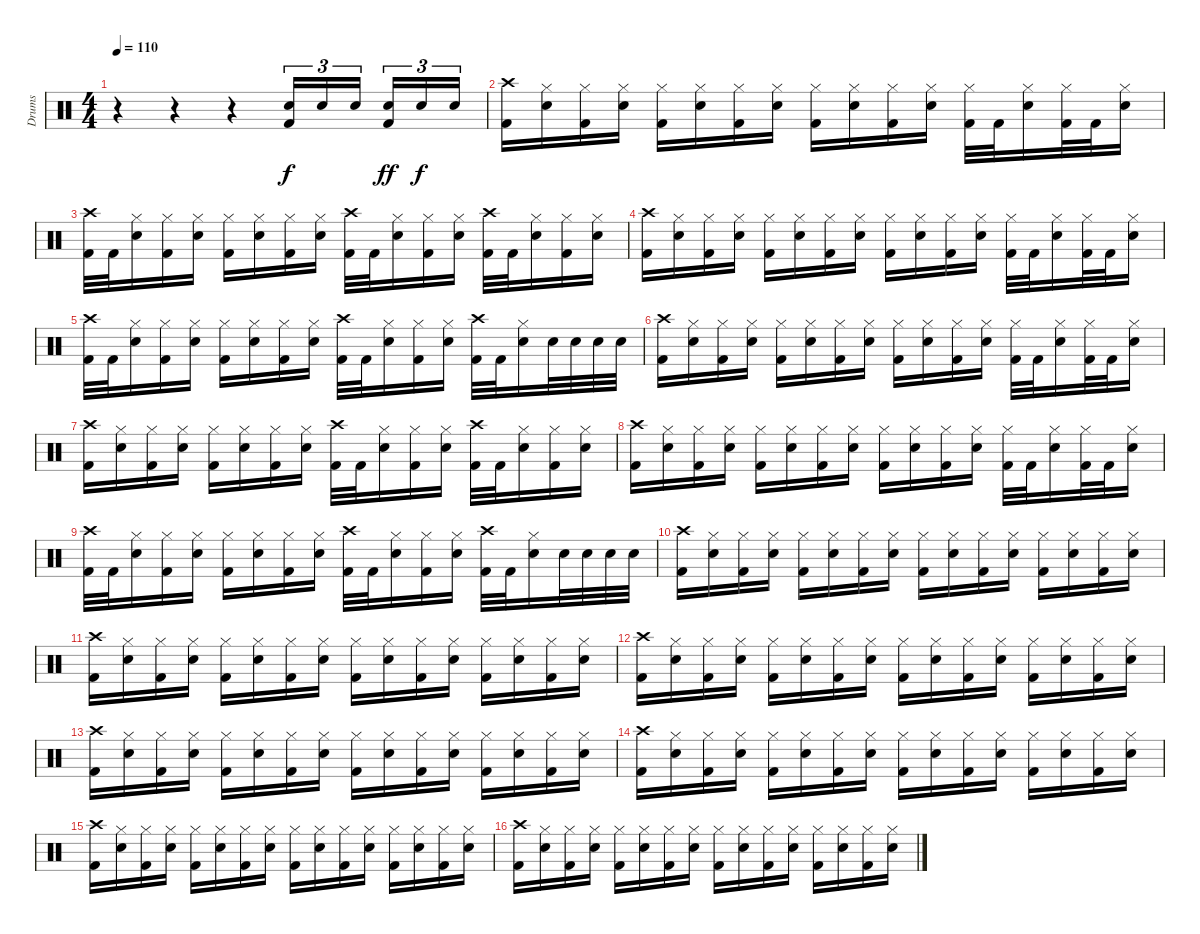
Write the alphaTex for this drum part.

\track ("Drums" "Drums") {instrument percussion}
\staff {score}
\articulation defaults
\ts (4 4)
\tempo 110
\clef neutral
\ks c
r.4{dy f} r.4 r.4 ("Kick (hit) 2" "Electric Snare (hit)").16{tu (3 2)} "Electric Snare (hit)".16{tu (3 2)} "Electric Snare (hit)".16{tu (3 2)} ("Kick (hit) 2" "Electric Snare (hit)").16{tu (3 2) dy ff} "Electric Snare (hit)".16{tu (3 2) dy f} "Electric Snare (hit)".16{tu (3 2)} |
("Crash high (hit)" "Kick (hit) 2").16 ("Hi-Hat (closed)" "Electric Snare (hit)").16 ("Hi-Hat (closed)" "Kick (hit) 2").16 ("Hi-Hat (closed)" "Electric Snare (hit)").16 ("Hi-Hat (closed)" "Kick (hit) 2").16 ("Hi-Hat (closed)" "Electric Snare (hit)").16 ("Hi-Hat (closed)" "Kick (hit) 2").16 ("Hi-Hat (closed)" "Electric Snare (hit)").16 ("Hi-Hat (closed)" "Kick (hit) 2").16 ("Hi-Hat (closed)" "Electric Snare (hit)").16 ("Hi-Hat (closed)" "Kick (hit) 2").16 ("Hi-Hat (closed)" "Electric Snare (hit)").16 ("Hi-Hat (closed)" "Kick (hit) 2").32 "Kick (hit) 2".32 ("Hi-Hat (closed)" "Electric Snare (hit)").16 ("Hi-Hat (closed)" "Kick (hit) 2").32 "Kick (hit) 2".32 ("Hi-Hat (closed)" "Electric Snare (hit)").16 |
("Crash high (hit)" "Kick (hit) 2").32 "Kick (hit) 2".32 ("Hi-Hat (closed)" "Electric Snare (hit)").16 ("Hi-Hat (closed)" "Kick (hit) 2").16 ("Hi-Hat (closed)" "Electric Snare (hit)").16 ("Hi-Hat (closed)" "Kick (hit) 2").16 ("Hi-Hat (closed)" "Electric Snare (hit)").16 ("Hi-Hat (closed)" "Kick (hit) 2").16 ("Hi-Hat (closed)" "Electric Snare (hit)").16 ("Crash high (hit)" "Kick (hit) 2").32 "Kick (hit) 2".32 ("Hi-Hat (closed)" "Electric Snare (hit)").16 ("Hi-Hat (closed)" "Kick (hit) 2").16 ("Hi-Hat (closed)" "Electric Snare (hit)").16 ("Crash high (hit)" "Kick (hit) 2").32 "Kick (hit) 2".32 ("Hi-Hat (closed)" "Electric Snare (hit)").16 ("Hi-Hat (closed)" "Kick (hit) 2").16 ("Hi-Hat (closed)" "Electric Snare (hit)").16 |
("Crash high (hit)" "Kick (hit) 2").16 ("Hi-Hat (closed)" "Electric Snare (hit)").16 ("Hi-Hat (closed)" "Kick (hit) 2").16 ("Hi-Hat (closed)" "Electric Snare (hit)").16 ("Hi-Hat (closed)" "Kick (hit) 2").16 ("Hi-Hat (closed)" "Electric Snare (hit)").16 ("Hi-Hat (closed)" "Kick (hit) 2").16 ("Hi-Hat (closed)" "Electric Snare (hit)").16 ("Hi-Hat (closed)" "Kick (hit) 2").16 ("Hi-Hat (closed)" "Electric Snare (hit)").16 ("Hi-Hat (closed)" "Kick (hit) 2").16 ("Hi-Hat (closed)" "Electric Snare (hit)").16 ("Hi-Hat (closed)" "Kick (hit) 2").32 "Kick (hit) 2".32 ("Hi-Hat (closed)" "Electric Snare (hit)").16 ("Hi-Hat (closed)" "Kick (hit) 2").32 "Kick (hit) 2".32 ("Hi-Hat (closed)" "Electric Snare (hit)").16 |
("Crash high (hit)" "Kick (hit) 2").32 "Kick (hit) 2".32 ("Hi-Hat (closed)" "Electric Snare (hit)").16 ("Hi-Hat (closed)" "Kick (hit) 2").16 ("Hi-Hat (closed)" "Electric Snare (hit)").16 ("Hi-Hat (closed)" "Kick (hit) 2").16 ("Hi-Hat (closed)" "Electric Snare (hit)").16 ("Hi-Hat (closed)" "Kick (hit) 2").16 ("Hi-Hat (closed)" "Electric Snare (hit)").16 ("Crash high (hit)" "Kick (hit) 2").32 "Kick (hit) 2".32 ("Hi-Hat (closed)" "Electric Snare (hit)").16 ("Hi-Hat (closed)" "Kick (hit) 2").16 ("Hi-Hat (closed)" "Electric Snare (hit)").16 ("Crash high (hit)" "Kick (hit) 2").32 "Kick (hit) 2".32 ("Hi-Hat (closed)" "Electric Snare (hit)").16 "Electric Snare (hit)".32 "Electric Snare (hit)".32 "Electric Snare (hit)".32 "Electric Snare (hit)".32 |
("Crash high (hit)" "Kick (hit) 2").16 ("Hi-Hat (closed)" "Electric Snare (hit)").16 ("Hi-Hat (closed)" "Kick (hit) 2").16 ("Hi-Hat (closed)" "Electric Snare (hit)").16 ("Hi-Hat (closed)" "Kick (hit) 2").16 ("Hi-Hat (closed)" "Electric Snare (hit)").16 ("Hi-Hat (closed)" "Kick (hit) 2").16 ("Hi-Hat (closed)" "Electric Snare (hit)").16 ("Hi-Hat (closed)" "Kick (hit) 2").16 ("Hi-Hat (closed)" "Electric Snare (hit)").16 ("Hi-Hat (closed)" "Kick (hit) 2").16 ("Hi-Hat (closed)" "Electric Snare (hit)").16 ("Hi-Hat (closed)" "Kick (hit) 2").32 "Kick (hit) 2".32 ("Hi-Hat (closed)" "Electric Snare (hit)").16 ("Hi-Hat (closed)" "Kick (hit) 2").32 "Kick (hit) 2".32 ("Hi-Hat (closed)" "Electric Snare (hit)").16 |
("Crash high (hit)" "Kick (hit) 2").16 ("Hi-Hat (closed)" "Electric Snare (hit)").16 ("Hi-Hat (closed)" "Kick (hit) 2").16 ("Hi-Hat (closed)" "Electric Snare (hit)").16 ("Hi-Hat (closed)" "Kick (hit) 2").16 ("Hi-Hat (closed)" "Electric Snare (hit)").16 ("Hi-Hat (closed)" "Kick (hit) 2").16 ("Hi-Hat (closed)" "Electric Snare (hit)").16 ("Crash high (hit)" "Kick (hit) 2").32 "Kick (hit) 2".32 ("Hi-Hat (closed)" "Electric Snare (hit)").16 ("Hi-Hat (closed)" "Kick (hit) 2").16 ("Hi-Hat (closed)" "Electric Snare (hit)").16 ("Crash high (hit)" "Kick (hit) 2").32 "Kick (hit) 2".32 ("Hi-Hat (closed)" "Electric Snare (hit)").16 ("Hi-Hat (closed)" "Kick (hit) 2").16 ("Hi-Hat (closed)" "Electric Snare (hit)").16 |
("Crash high (hit)" "Kick (hit) 2").16 ("Hi-Hat (closed)" "Electric Snare (hit)").16 ("Hi-Hat (closed)" "Kick (hit) 2").16 ("Hi-Hat (closed)" "Electric Snare (hit)").16 ("Hi-Hat (closed)" "Kick (hit) 2").16 ("Hi-Hat (closed)" "Electric Snare (hit)").16 ("Hi-Hat (closed)" "Kick (hit) 2").16 ("Hi-Hat (closed)" "Electric Snare (hit)").16 ("Hi-Hat (closed)" "Kick (hit) 2").16 ("Hi-Hat (closed)" "Electric Snare (hit)").16 ("Hi-Hat (closed)" "Kick (hit) 2").16 ("Hi-Hat (closed)" "Electric Snare (hit)").16 ("Hi-Hat (closed)" "Kick (hit) 2").32 "Kick (hit) 2".32 ("Hi-Hat (closed)" "Electric Snare (hit)").16 ("Hi-Hat (closed)" "Kick (hit) 2").32 "Kick (hit) 2".32 ("Hi-Hat (closed)" "Electric Snare (hit)").16 |
("Crash high (hit)" "Kick (hit) 2").32 "Kick (hit) 2".32 ("Hi-Hat (closed)" "Electric Snare (hit)").16 ("Hi-Hat (closed)" "Kick (hit) 2").16 ("Hi-Hat (closed)" "Electric Snare (hit)").16 ("Hi-Hat (closed)" "Kick (hit) 2").16 ("Hi-Hat (closed)" "Electric Snare (hit)").16 ("Hi-Hat (closed)" "Kick (hit) 2").16 ("Hi-Hat (closed)" "Electric Snare (hit)").16 ("Crash high (hit)" "Kick (hit) 2").32 "Kick (hit) 2".32 ("Hi-Hat (closed)" "Electric Snare (hit)").16 ("Hi-Hat (closed)" "Kick (hit) 2").16 ("Hi-Hat (closed)" "Electric Snare (hit)").16 ("Crash high (hit)" "Kick (hit) 2").32 "Kick (hit) 2".32 ("Hi-Hat (closed)" "Electric Snare (hit)").16 "Electric Snare (hit)".32 "Electric Snare (hit)".32 "Electric Snare (hit)".32 "Electric Snare (hit)".32 |
("Crash high (hit)" "Kick (hit) 2").16 ("Hi-Hat (closed)" "Electric Snare (hit)").16 ("Hi-Hat (closed)" "Kick (hit) 2").16 ("Hi-Hat (closed)" "Electric Snare (hit)").16 ("Hi-Hat (closed)" "Kick (hit) 2").16 ("Hi-Hat (closed)" "Electric Snare (hit)").16 ("Hi-Hat (closed)" "Kick (hit) 2").16 ("Hi-Hat (closed)" "Electric Snare (hit)").16 ("Hi-Hat (closed)" "Kick (hit) 2").16 ("Hi-Hat (closed)" "Electric Snare (hit)").16 ("Hi-Hat (closed)" "Kick (hit) 2").16 ("Hi-Hat (closed)" "Electric Snare (hit)").16 ("Hi-Hat (closed)" "Kick (hit) 2").16 ("Hi-Hat (closed)" "Electric Snare (hit)").16 ("Hi-Hat (closed)" "Kick (hit) 2").16 ("Hi-Hat (closed)" "Electric Snare (hit)").16 |
("Crash high (hit)" "Kick (hit) 2").16 ("Hi-Hat (closed)" "Electric Snare (hit)").16 ("Hi-Hat (closed)" "Kick (hit) 2").16 ("Hi-Hat (closed)" "Electric Snare (hit)").16 ("Hi-Hat (closed)" "Kick (hit) 2").16 ("Hi-Hat (closed)" "Electric Snare (hit)").16 ("Hi-Hat (closed)" "Kick (hit) 2").16 ("Hi-Hat (closed)" "Electric Snare (hit)").16 ("Hi-Hat (closed)" "Kick (hit) 2").16 ("Hi-Hat (closed)" "Electric Snare (hit)").16 ("Hi-Hat (closed)" "Kick (hit) 2").16 ("Hi-Hat (closed)" "Electric Snare (hit)").16 ("Hi-Hat (closed)" "Kick (hit) 2").16 ("Hi-Hat (closed)" "Electric Snare (hit)").16 ("Hi-Hat (closed)" "Kick (hit) 2").16 ("Hi-Hat (closed)" "Electric Snare (hit)").16 |
("Crash high (hit)" "Kick (hit) 2").16 ("Hi-Hat (closed)" "Electric Snare (hit)").16 ("Hi-Hat (closed)" "Kick (hit) 2").16 ("Hi-Hat (closed)" "Electric Snare (hit)").16 ("Hi-Hat (closed)" "Kick (hit) 2").16 ("Hi-Hat (closed)" "Electric Snare (hit)").16 ("Hi-Hat (closed)" "Kick (hit) 2").16 ("Hi-Hat (closed)" "Electric Snare (hit)").16 ("Hi-Hat (closed)" "Kick (hit) 2").16 ("Hi-Hat (closed)" "Electric Snare (hit)").16 ("Hi-Hat (closed)" "Kick (hit) 2").16 ("Hi-Hat (closed)" "Electric Snare (hit)").16 ("Hi-Hat (closed)" "Kick (hit) 2").16 ("Hi-Hat (closed)" "Electric Snare (hit)").16 ("Hi-Hat (closed)" "Kick (hit) 2").16 ("Hi-Hat (closed)" "Electric Snare (hit)").16 |
("Crash high (hit)" "Kick (hit) 2").16 ("Hi-Hat (closed)" "Electric Snare (hit)").16 ("Hi-Hat (closed)" "Kick (hit) 2").16 ("Hi-Hat (closed)" "Electric Snare (hit)").16 ("Hi-Hat (closed)" "Kick (hit) 2").16 ("Hi-Hat (closed)" "Electric Snare (hit)").16 ("Hi-Hat (closed)" "Kick (hit) 2").16 ("Hi-Hat (closed)" "Electric Snare (hit)").16 ("Hi-Hat (closed)" "Kick (hit) 2").16 ("Hi-Hat (closed)" "Electric Snare (hit)").16 ("Hi-Hat (closed)" "Kick (hit) 2").16 ("Hi-Hat (closed)" "Electric Snare (hit)").16 ("Hi-Hat (closed)" "Kick (hit) 2").16 ("Hi-Hat (closed)" "Electric Snare (hit)").16 ("Hi-Hat (closed)" "Kick (hit) 2").16 ("Hi-Hat (closed)" "Electric Snare (hit)").16 |
("Crash high (hit)" "Kick (hit) 2").16 ("Hi-Hat (closed)" "Electric Snare (hit)").16 ("Hi-Hat (closed)" "Kick (hit) 2").16 ("Hi-Hat (closed)" "Electric Snare (hit)").16 ("Hi-Hat (closed)" "Kick (hit) 2").16 ("Hi-Hat (closed)" "Electric Snare (hit)").16 ("Hi-Hat (closed)" "Kick (hit) 2").16 ("Hi-Hat (closed)" "Electric Snare (hit)").16 ("Hi-Hat (closed)" "Kick (hit) 2").16 ("Hi-Hat (closed)" "Electric Snare (hit)").16 ("Hi-Hat (closed)" "Kick (hit) 2").16 ("Hi-Hat (closed)" "Electric Snare (hit)").16 ("Hi-Hat (closed)" "Kick (hit) 2").16 ("Hi-Hat (closed)" "Electric Snare (hit)").16 ("Hi-Hat (closed)" "Kick (hit) 2").16 ("Hi-Hat (closed)" "Electric Snare (hit)").16 |
("Crash high (hit)" "Kick (hit) 2").16 ("Hi-Hat (closed)" "Electric Snare (hit)").16 ("Hi-Hat (closed)" "Kick (hit) 2").16 ("Hi-Hat (closed)" "Electric Snare (hit)").16 ("Hi-Hat (closed)" "Kick (hit) 2").16 ("Hi-Hat (closed)" "Electric Snare (hit)").16 ("Hi-Hat (closed)" "Kick (hit) 2").16 ("Hi-Hat (closed)" "Electric Snare (hit)").16 ("Hi-Hat (closed)" "Kick (hit) 2").16 ("Hi-Hat (closed)" "Electric Snare (hit)").16 ("Hi-Hat (closed)" "Kick (hit) 2").16 ("Hi-Hat (closed)" "Electric Snare (hit)").16 ("Hi-Hat (closed)" "Kick (hit) 2").16 ("Hi-Hat (closed)" "Electric Snare (hit)").16 ("Hi-Hat (closed)" "Kick (hit) 2").16 ("Hi-Hat (closed)" "Electric Snare (hit)").16 |
("Crash high (hit)" "Kick (hit) 2").16 ("Hi-Hat (closed)" "Electric Snare (hit)").16 ("Hi-Hat (closed)" "Kick (hit) 2").16 ("Hi-Hat (closed)" "Electric Snare (hit)").16 ("Hi-Hat (closed)" "Kick (hit) 2").16 ("Hi-Hat (closed)" "Electric Snare (hit)").16 ("Hi-Hat (closed)" "Kick (hit) 2").16 ("Hi-Hat (closed)" "Electric Snare (hit)").16 ("Hi-Hat (closed)" "Kick (hit) 2").16 ("Hi-Hat (closed)" "Electric Snare (hit)").16 ("Hi-Hat (closed)" "Kick (hit) 2").16 ("Hi-Hat (closed)" "Electric Snare (hit)").16 ("Hi-Hat (closed)" "Kick (hit) 2").16 ("Hi-Hat (closed)" "Electric Snare (hit)").16 ("Hi-Hat (closed)" "Kick (hit) 2").16 ("Hi-Hat (closed)" "Electric Snare (hit)").16
